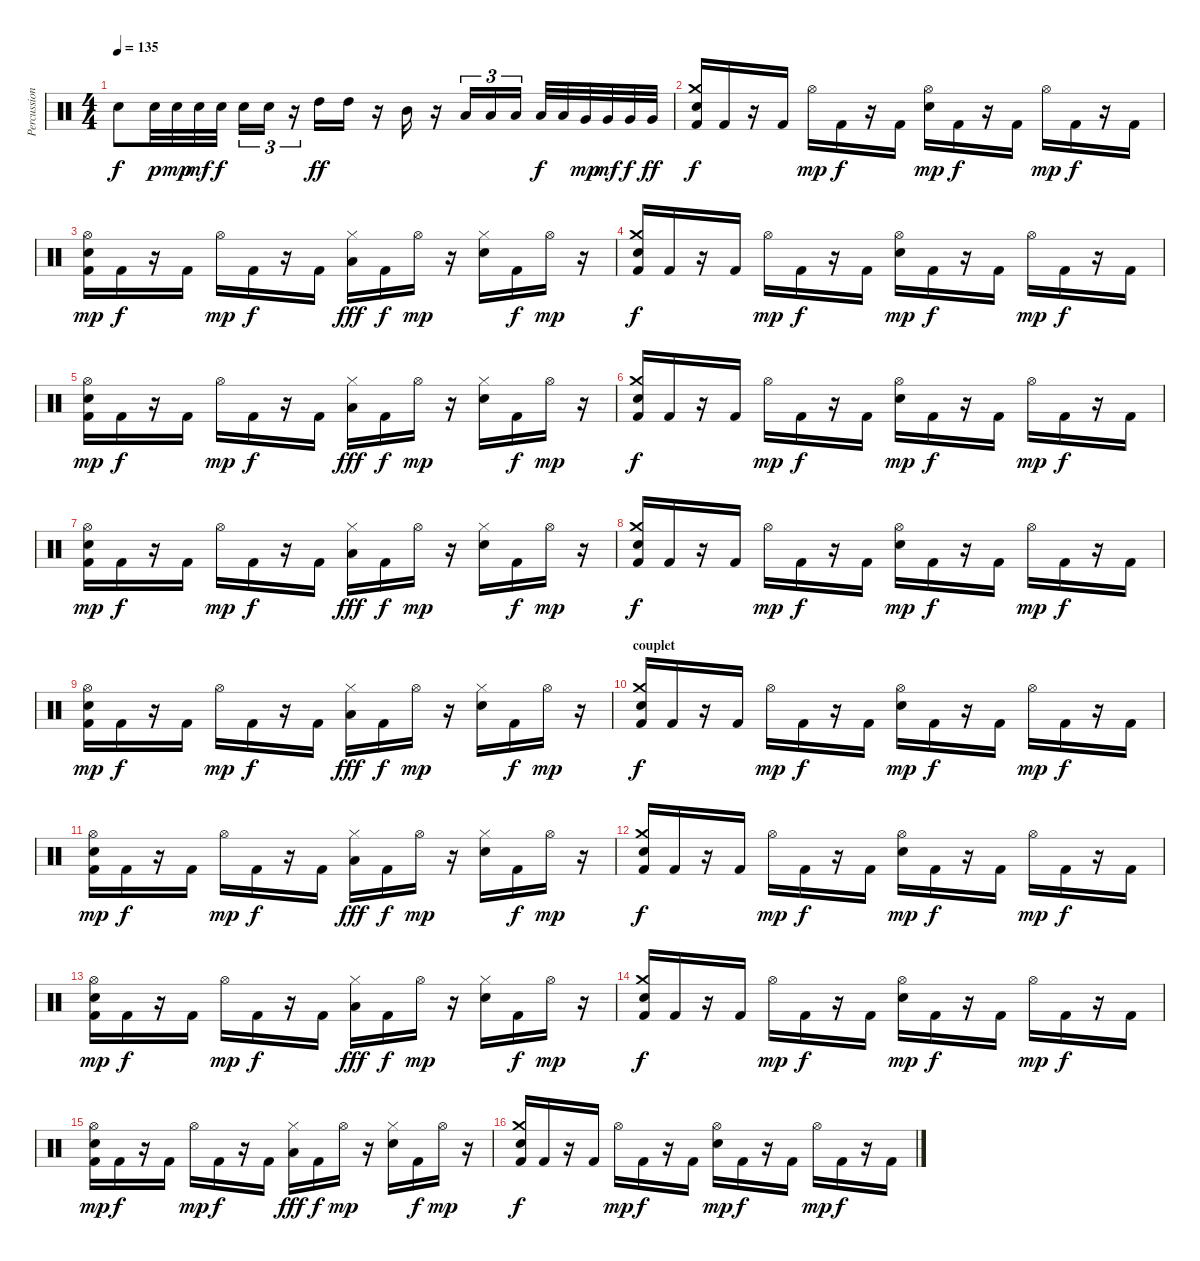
\track ("Percussions" "Percussion") {instrument percussion}
\staff {score}
\articulation defaults
\ts (4 4)
\tempo 135
\clef neutral
\ks c "Electric Snare (hit)".8{dy f} "Electric Snare (hit)".32{dy p} "Electric Snare (hit)".32{dy mp} "Electric Snare (hit)".32{dy mf} "Electric Snare (hit)".32{dy f} "Electric Snare (hit)".16{tu (3 2)} "Electric Snare (hit)".16{tu (3 2)}
r.16{tu (3 2)} "High Tom (hit)".16{dy ff} "High Tom (hit)".16 r.16 "Mid Tom (hit)".16 r.16 "Low Tom (hit)".16{tu (3 2)} "Low Tom (hit)".16{tu (3 2)} "Low Tom (hit)".16{tu (3 2)} "Low Tom (hit)".32{dy f} "Low Tom (hit)".32 "Very Low Tom (hit)".32{dy mp} "Very Low Tom (hit)".32{dy mf} "Very Low Tom (hit)".32{dy f} "Very Low Tom (hit)".32{dy ff} |
("Crash medium (hit)" "Electric Snare (hit)" "Kick (hit) 2").16{dy f} "Kick (hit) 2".16 r.16 "Kick (hit) 2".16 "Hi-Hat (open)".16{dy mp} "Kick (hit) 2".16{dy f} r.16 "Kick (hit) 2".16 ("Hi-Hat (open)" "Electric Snare (hit)").16{dy mp} "Kick (hit) 2".16{dy f} r.16 "Kick (hit) 2".16 "Hi-Hat (open)".16{dy mp} "Kick (hit) 2".16{dy f} r.16 "Kick (hit) 2".16 |
("Hi-Hat (open)" "Electric Snare (hit)" "Kick (hit) 2").16{dy mp} "Kick (hit) 2".16{dy f} r.16 "Kick (hit) 2".16 "Hi-Hat (open)".16{dy mp} "Kick (hit) 2".16{dy f} r.16 "Kick (hit) 2".16 ("Hi-Hat (closed)" "Low Tom (hit)").16{dy fff} "Kick (hit) 2".16{dy f} "Hi-Hat (open)".16{dy mp} r.16 ("Hi-Hat (closed)" "Electric Snare (hit)").16 "Kick (hit) 2".16{dy f} "Hi-Hat (open)".16{dy mp} r.16 |
("Crash medium (hit)" "Electric Snare (hit)" "Kick (hit) 2").16{dy f} "Kick (hit) 2".16 r.16 "Kick (hit) 2".16 "Hi-Hat (open)".16{dy mp} "Kick (hit) 2".16{dy f} r.16 "Kick (hit) 2".16 ("Hi-Hat (open)" "Electric Snare (hit)").16{dy mp} "Kick (hit) 2".16{dy f} r.16 "Kick (hit) 2".16 "Hi-Hat (open)".16{dy mp} "Kick (hit) 2".16{dy f} r.16 "Kick (hit) 2".16 |
("Hi-Hat (open)" "Electric Snare (hit)" "Kick (hit) 2").16{dy mp} "Kick (hit) 2".16{dy f} r.16 "Kick (hit) 2".16 "Hi-Hat (open)".16{dy mp} "Kick (hit) 2".16{dy f} r.16 "Kick (hit) 2".16 ("Hi-Hat (closed)" "Low Tom (hit)").16{dy fff} "Kick (hit) 2".16{dy f} "Hi-Hat (open)".16{dy mp} r.16 ("Hi-Hat (closed)" "Electric Snare (hit)").16 "Kick (hit) 2".16{dy f} "Hi-Hat (open)".16{dy mp} r.16 |
("Crash medium (hit)" "Electric Snare (hit)" "Kick (hit) 2").16{dy f} "Kick (hit) 2".16 r.16 "Kick (hit) 2".16 "Hi-Hat (open)".16{dy mp} "Kick (hit) 2".16{dy f} r.16 "Kick (hit) 2".16 ("Hi-Hat (open)" "Electric Snare (hit)").16{dy mp} "Kick (hit) 2".16{dy f} r.16 "Kick (hit) 2".16 "Hi-Hat (open)".16{dy mp} "Kick (hit) 2".16{dy f} r.16 "Kick (hit) 2".16 |
("Hi-Hat (open)" "Electric Snare (hit)" "Kick (hit) 2").16{dy mp} "Kick (hit) 2".16{dy f} r.16 "Kick (hit) 2".16 "Hi-Hat (open)".16{dy mp} "Kick (hit) 2".16{dy f} r.16 "Kick (hit) 2".16 ("Hi-Hat (closed)" "Low Tom (hit)").16{dy fff} "Kick (hit) 2".16{dy f} "Hi-Hat (open)".16{dy mp} r.16 ("Hi-Hat (closed)" "Electric Snare (hit)").16 "Kick (hit) 2".16{dy f} "Hi-Hat (open)".16{dy mp} r.16 |
("Crash medium (hit)" "Electric Snare (hit)" "Kick (hit) 2").16{dy f} "Kick (hit) 2".16 r.16 "Kick (hit) 2".16 "Hi-Hat (open)".16{dy mp} "Kick (hit) 2".16{dy f} r.16 "Kick (hit) 2".16 ("Hi-Hat (open)" "Electric Snare (hit)").16{dy mp} "Kick (hit) 2".16{dy f} r.16 "Kick (hit) 2".16 "Hi-Hat (open)".16{dy mp} "Kick (hit) 2".16{dy f} r.16 "Kick (hit) 2".16 |
("Hi-Hat (open)" "Electric Snare (hit)" "Kick (hit) 2").16{dy mp} "Kick (hit) 2".16{dy f} r.16 "Kick (hit) 2".16 "Hi-Hat (open)".16{dy mp} "Kick (hit) 2".16{dy f} r.16 "Kick (hit) 2".16 ("Hi-Hat (closed)" "Low Tom (hit)").16{dy fff} "Kick (hit) 2".16{dy f} "Hi-Hat (open)".16{dy mp} r.16 ("Hi-Hat (closed)" "Electric Snare (hit)").16 "Kick (hit) 2".16{dy f} "Hi-Hat (open)".16{dy mp} r.16 |
\section ("" "couplet")
("Crash medium (hit)" "Electric Snare (hit)" "Kick (hit) 2").16{dy f} "Kick (hit) 2".16 r.16 "Kick (hit) 2".16 "Hi-Hat (open)".16{dy mp} "Kick (hit) 2".16{dy f} r.16 "Kick (hit) 2".16 ("Hi-Hat (open)" "Electric Snare (hit)").16{dy mp} "Kick (hit) 2".16{dy f} r.16 "Kick (hit) 2".16 "Hi-Hat (open)".16{dy mp} "Kick (hit) 2".16{dy f} r.16 "Kick (hit) 2".16 |
("Hi-Hat (open)" "Electric Snare (hit)" "Kick (hit) 2").16{dy mp} "Kick (hit) 2".16{dy f} r.16 "Kick (hit) 2".16 "Hi-Hat (open)".16{dy mp} "Kick (hit) 2".16{dy f} r.16 "Kick (hit) 2".16 ("Hi-Hat (closed)" "Low Tom (hit)").16{dy fff} "Kick (hit) 2".16{dy f} "Hi-Hat (open)".16{dy mp} r.16 ("Hi-Hat (closed)" "Electric Snare (hit)").16 "Kick (hit) 2".16{dy f} "Hi-Hat (open)".16{dy mp} r.16 |
("Crash medium (hit)" "Electric Snare (hit)" "Kick (hit) 2").16{dy f} "Kick (hit) 2".16 r.16 "Kick (hit) 2".16 "Hi-Hat (open)".16{dy mp} "Kick (hit) 2".16{dy f} r.16 "Kick (hit) 2".16 ("Hi-Hat (open)" "Electric Snare (hit)").16{dy mp} "Kick (hit) 2".16{dy f} r.16 "Kick (hit) 2".16 "Hi-Hat (open)".16{dy mp} "Kick (hit) 2".16{dy f} r.16 "Kick (hit) 2".16 |
("Hi-Hat (open)" "Electric Snare (hit)" "Kick (hit) 2").16{dy mp} "Kick (hit) 2".16{dy f} r.16 "Kick (hit) 2".16 "Hi-Hat (open)".16{dy mp} "Kick (hit) 2".16{dy f} r.16 "Kick (hit) 2".16 ("Hi-Hat (closed)" "Low Tom (hit)").16{dy fff} "Kick (hit) 2".16{dy f} "Hi-Hat (open)".16{dy mp} r.16 ("Hi-Hat (closed)" "Electric Snare (hit)").16 "Kick (hit) 2".16{dy f} "Hi-Hat (open)".16{dy mp} r.16 |
("Crash medium (hit)" "Electric Snare (hit)" "Kick (hit) 2").16{dy f} "Kick (hit) 2".16 r.16 "Kick (hit) 2".16 "Hi-Hat (open)".16{dy mp} "Kick (hit) 2".16{dy f} r.16 "Kick (hit) 2".16 ("Hi-Hat (open)" "Electric Snare (hit)").16{dy mp} "Kick (hit) 2".16{dy f} r.16 "Kick (hit) 2".16 "Hi-Hat (open)".16{dy mp} "Kick (hit) 2".16{dy f} r.16 "Kick (hit) 2".16 |
("Hi-Hat (open)" "Electric Snare (hit)" "Kick (hit) 2").16{dy mp} "Kick (hit) 2".16{dy f} r.16 "Kick (hit) 2".16 "Hi-Hat (open)".16{dy mp} "Kick (hit) 2".16{dy f} r.16 "Kick (hit) 2".16 ("Hi-Hat (closed)" "Low Tom (hit)").16{dy fff} "Kick (hit) 2".16{dy f} "Hi-Hat (open)".16{dy mp} r.16 ("Hi-Hat (closed)" "Electric Snare (hit)").16 "Kick (hit) 2".16{dy f} "Hi-Hat (open)".16{dy mp} r.16 |
("Crash medium (hit)" "Electric Snare (hit)" "Kick (hit) 2").16{dy f} "Kick (hit) 2".16 r.16 "Kick (hit) 2".16 "Hi-Hat (open)".16{dy mp} "Kick (hit) 2".16{dy f} r.16 "Kick (hit) 2".16 ("Hi-Hat (open)" "Electric Snare (hit)").16{dy mp} "Kick (hit) 2".16{dy f} r.16 "Kick (hit) 2".16 "Hi-Hat (open)".16{dy mp} "Kick (hit) 2".16{dy f} r.16 "Kick (hit) 2".16
